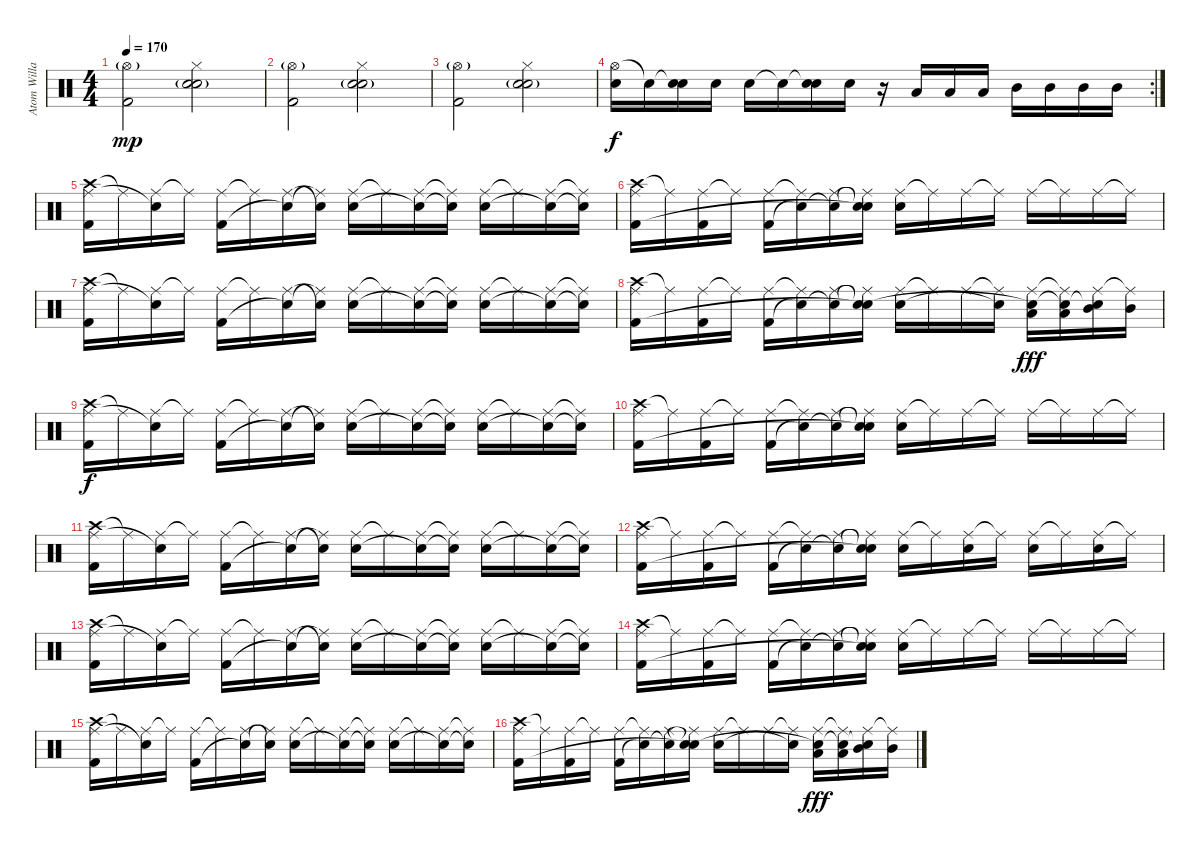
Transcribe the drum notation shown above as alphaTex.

\track ("Atom Willard" "Atom Willa") {instrument percussion}
\staff {score}
\articulation defaults
\ts (4 4)
\tempo 170
\clef neutral
\ks c
("Hi-Hat (open)"{g} "Kick (hit) 2").2{dy mp} ("Hi-Hat (closed)" "Electric Snare (hit)"{g} "Snare (hit) 2"{g}).2 |
("Hi-Hat (open)"{g} "Kick (hit) 2").2 ("Hi-Hat (closed)" "Electric Snare (hit)"{g} "Snare (hit) 2"{g}).2 |
("Hi-Hat (open)"{g} "Kick (hit) 2").2 ("Hi-Hat (closed)" "Electric Snare (hit)"{g} "Snare (hit) 2"{g}).2 |
\rc 2
("Hi-Hat (open)" "Electric Snare (hit)").16{dy f} "Electric Snare (hit)"{t}.16 ("Snare (hit)"{t} "Electric Snare (hit)").16 "Electric Snare (hit)".16 "Electric Snare (hit)".16 "Electric Snare (hit)"{t}.16 ("Snare (hit)"{t} "Electric Snare (hit)").16 "Electric Snare (hit)".16 r.16 "Low Tom (hit)".16 "Low Tom (hit)".16 "Low Tom (hit)".16 "Mid Tom (hit)".16 "Mid Tom (hit)".16 "Mid Tom (hit)".16 "Mid Tom (hit)".16 |
("Crash high (hit)" "Ride (middle)" "Kick (hit) 2").16 "Ride (middle)"{t}.16 ("Ride (middle)" "Snare (hit)"{t}).16 "Ride (middle)"{t}.16 ("Ride (middle)" "Kick (hit) 2").16 "Ride (middle)"{t}.16 ("Ride (middle)" "Snare (hit)"{t}).16 ("Snare (hit)"{t} "Ride (middle)"{t}).16 ("Ride (middle)" "Electric Snare (hit)").16 "Ride (middle)"{t}.16 ("Ride (middle)" "Electric Snare (hit)"{t}).16 ("Ride (middle)"{t} "Snare (hit)"{t}).16 ("Ride (middle)" "Electric Snare (hit)").16 "Ride (middle)"{t}.16 ("Ride (middle)" "Snare (hit)"{t}).16 ("Ride (middle)"{t} "Snare (hit)"{t}).16 |
("Crash high (hit)" "Ride (middle)" "Kick (hit) 2").16 "Ride (middle)"{t}.16 ("Ride (middle)" "Kick (hit) 2").16 "Ride (middle)"{t}.16 ("Ride (middle)" "Kick (hit) 2").16 ("Ride (middle)"{t} "Snare (hit)"{t}).16 ("Ride (middle)" "Snare (hit)"{t}).16 ("Snare (hit)"{t} "Ride (middle)"{t} "Snare (hit)"{t}).16 ("Ride (middle)" "Electric Snare (hit)").16 "Ride (middle)"{t}.16 "Ride (middle)".16 "Ride (middle)"{t}.16 "Ride (middle)".16 "Ride (middle)"{t}.16 "Ride (middle)".16 "Ride (middle)"{t}.16 |
("Crash high (hit)" "Ride (middle)" "Kick (hit) 2").16 "Ride (middle)"{t}.16 ("Ride (middle)" "Snare (hit)"{t}).16 "Ride (middle)"{t}.16 ("Ride (middle)" "Kick (hit) 2").16 "Ride (middle)"{t}.16 ("Ride (middle)" "Snare (hit)"{t}).16 ("Snare (hit)"{t} "Ride (middle)"{t}).16 ("Ride (middle)" "Electric Snare (hit)").16 "Ride (middle)"{t}.16 ("Ride (middle)" "Electric Snare (hit)"{t}).16 ("Ride (middle)"{t} "Snare (hit)"{t}).16 ("Ride (middle)" "Electric Snare (hit)").16 "Ride (middle)"{t}.16 ("Ride (middle)" "Snare (hit)"{t}).16 ("Ride (middle)"{t} "Snare (hit)"{t}).16 |
("Crash high (hit)" "Ride (middle)" "Kick (hit) 2").16 "Ride (middle)"{t}.16 ("Ride (middle)" "Kick (hit) 2").16 "Ride (middle)"{t}.16 ("Ride (middle)" "Kick (hit) 2").16 ("Ride (middle)"{t} "Snare (hit)"{t}).16 ("Ride (middle)" "Snare (hit)"{t}).16 ("Snare (hit)"{t} "Ride (middle)"{t} "Snare (hit)"{t}).16 ("Ride (middle)" "Electric Snare (hit)").16 "Ride (middle)"{t}.16 "Ride (middle)".16 ("Ride (middle)"{t} "Snare (hit)"{t}).16 ("Low Tom (hit)" "Ride (middle)" "Snare (hit)"{t}).16{dy fff} ("Low Tom (hit)" "Ride (middle)"{t} "Snare (hit)"{t}).16 ("Mid Tom (hit)" "Ride (middle)" "Snare (hit)"{t}).16 ("Mid Tom (hit)" "Ride (middle)"{t}).16 |
("Crash high (hit)" "Ride (middle)" "Kick (hit) 2").16{dy f} "Ride (middle)"{t}.16 ("Ride (middle)" "Snare (hit)"{t}).16 "Ride (middle)"{t}.16 ("Ride (middle)" "Kick (hit) 2").16 "Ride (middle)"{t}.16 ("Ride (middle)" "Snare (hit)"{t}).16 ("Snare (hit)"{t} "Ride (middle)"{t}).16 ("Ride (middle)" "Electric Snare (hit)").16 "Ride (middle)"{t}.16 ("Ride (middle)" "Electric Snare (hit)"{t}).16 ("Ride (middle)"{t} "Snare (hit)"{t}).16 ("Ride (middle)" "Electric Snare (hit)").16 "Ride (middle)"{t}.16 ("Ride (middle)" "Snare (hit)"{t}).16 ("Ride (middle)"{t} "Snare (hit)"{t}).16 |
("Crash high (hit)" "Ride (middle)" "Kick (hit) 2").16 "Ride (middle)"{t}.16 ("Ride (middle)" "Kick (hit) 2").16 "Ride (middle)"{t}.16 ("Ride (middle)" "Kick (hit) 2").16 ("Ride (middle)"{t} "Snare (hit)"{t}).16 ("Ride (middle)" "Snare (hit)"{t}).16 ("Snare (hit)"{t} "Ride (middle)"{t} "Snare (hit)"{t}).16 ("Ride (middle)" "Electric Snare (hit)").16 "Ride (middle)"{t}.16 "Ride (middle)".16 "Ride (middle)"{t}.16 "Ride (middle)".16 "Ride (middle)"{t}.16 "Ride (middle)".16 "Ride (middle)"{t}.16 |
("Crash high (hit)" "Ride (middle)" "Kick (hit) 2").16 "Ride (middle)"{t}.16 ("Ride (middle)" "Snare (hit)"{t}).16 "Ride (middle)"{t}.16 ("Ride (middle)" "Kick (hit) 2").16 "Ride (middle)"{t}.16 ("Ride (middle)" "Snare (hit)"{t}).16 ("Snare (hit)"{t} "Ride (middle)"{t}).16 ("Ride (middle)" "Electric Snare (hit)").16 "Ride (middle)"{t}.16 ("Ride (middle)" "Electric Snare (hit)"{t}).16 ("Ride (middle)"{t} "Snare (hit)"{t}).16 ("Ride (middle)" "Electric Snare (hit)").16 "Ride (middle)"{t}.16 ("Ride (middle)" "Snare (hit)"{t}).16 ("Ride (middle)"{t} "Snare (hit)"{t}).16 |
("Crash high (hit)" "Ride (middle)" "Kick (hit) 2").16 "Ride (middle)"{t}.16 ("Ride (middle)" "Kick (hit) 2").16 "Ride (middle)"{t}.16 ("Ride (middle)" "Kick (hit) 2").16 ("Ride (middle)"{t} "Snare (hit)"{t}).16 ("Ride (middle)" "Snare (hit)"{t}).16 ("Snare (hit)"{t} "Ride (middle)"{t} "Snare (hit)"{t}).16 ("Ride (middle)" "Electric Snare (hit)").16 "Ride (middle)"{t}.16 ("Ride (middle)" "Electric Snare (hit)").16 "Ride (middle)"{t}.16 ("Ride (middle)" "Electric Snare (hit)").16 "Ride (middle)"{t}.16 ("Ride (middle)" "Electric Snare (hit)").16 "Ride (middle)"{t}.16 |
("Crash high (hit)" "Ride (middle)" "Kick (hit) 2").16 "Ride (middle)"{t}.16 ("Ride (middle)" "Snare (hit)"{t}).16 "Ride (middle)"{t}.16 ("Ride (middle)" "Kick (hit) 2").16 "Ride (middle)"{t}.16 ("Ride (middle)" "Snare (hit)"{t}).16 ("Snare (hit)"{t} "Ride (middle)"{t}).16 ("Ride (middle)" "Electric Snare (hit)").16 "Ride (middle)"{t}.16 ("Ride (middle)" "Electric Snare (hit)"{t}).16 ("Ride (middle)"{t} "Snare (hit)"{t}).16 ("Ride (middle)" "Electric Snare (hit)").16 "Ride (middle)"{t}.16 ("Ride (middle)" "Snare (hit)"{t}).16 ("Ride (middle)"{t} "Snare (hit)"{t}).16 |
("Crash high (hit)" "Ride (middle)" "Kick (hit) 2").16 "Ride (middle)"{t}.16 ("Ride (middle)" "Kick (hit) 2").16 "Ride (middle)"{t}.16 ("Ride (middle)" "Kick (hit) 2").16 ("Ride (middle)"{t} "Snare (hit)"{t}).16 ("Ride (middle)" "Snare (hit)"{t}).16 ("Snare (hit)"{t} "Ride (middle)"{t} "Snare (hit)"{t}).16 ("Ride (middle)" "Electric Snare (hit)").16 "Ride (middle)"{t}.16 "Ride (middle)".16 "Ride (middle)"{t}.16 "Ride (middle)".16 "Ride (middle)"{t}.16 "Ride (middle)".16 "Ride (middle)"{t}.16 |
("Crash high (hit)" "Ride (middle)" "Kick (hit) 2").16 "Ride (middle)"{t}.16 ("Ride (middle)" "Snare (hit)"{t}).16 "Ride (middle)"{t}.16 ("Ride (middle)" "Kick (hit) 2").16 "Ride (middle)"{t}.16 ("Ride (middle)" "Snare (hit)"{t}).16 ("Snare (hit)"{t} "Ride (middle)"{t}).16 ("Ride (middle)" "Electric Snare (hit)").16 "Ride (middle)"{t}.16 ("Ride (middle)" "Electric Snare (hit)"{t}).16 ("Ride (middle)"{t} "Snare (hit)"{t}).16 ("Ride (middle)" "Electric Snare (hit)").16 "Ride (middle)"{t}.16 ("Ride (middle)" "Snare (hit)"{t}).16 ("Ride (middle)"{t} "Snare (hit)"{t}).16 |
("Crash high (hit)" "Ride (middle)" "Kick (hit) 2").16 "Ride (middle)"{t}.16 ("Ride (middle)" "Kick (hit) 2").16 "Ride (middle)"{t}.16 ("Ride (middle)" "Kick (hit) 2").16 ("Ride (middle)"{t} "Snare (hit)"{t}).16 ("Ride (middle)" "Snare (hit)"{t}).16 ("Snare (hit)"{t} "Ride (middle)"{t} "Snare (hit)"{t}).16 ("Ride (middle)" "Electric Snare (hit)").16 "Ride (middle)"{t}.16 "Ride (middle)".16 ("Ride (middle)"{t} "Snare (hit)"{t}).16 ("Low Tom (hit)" "Ride (middle)" "Snare (hit)"{t}).16{dy fff} ("Low Tom (hit)" "Ride (middle)"{t} "Snare (hit)"{t}).16 ("Mid Tom (hit)" "Ride (middle)" "Snare (hit)"{t}).16 ("Mid Tom (hit)" "Ride (middle)"{t}).16
